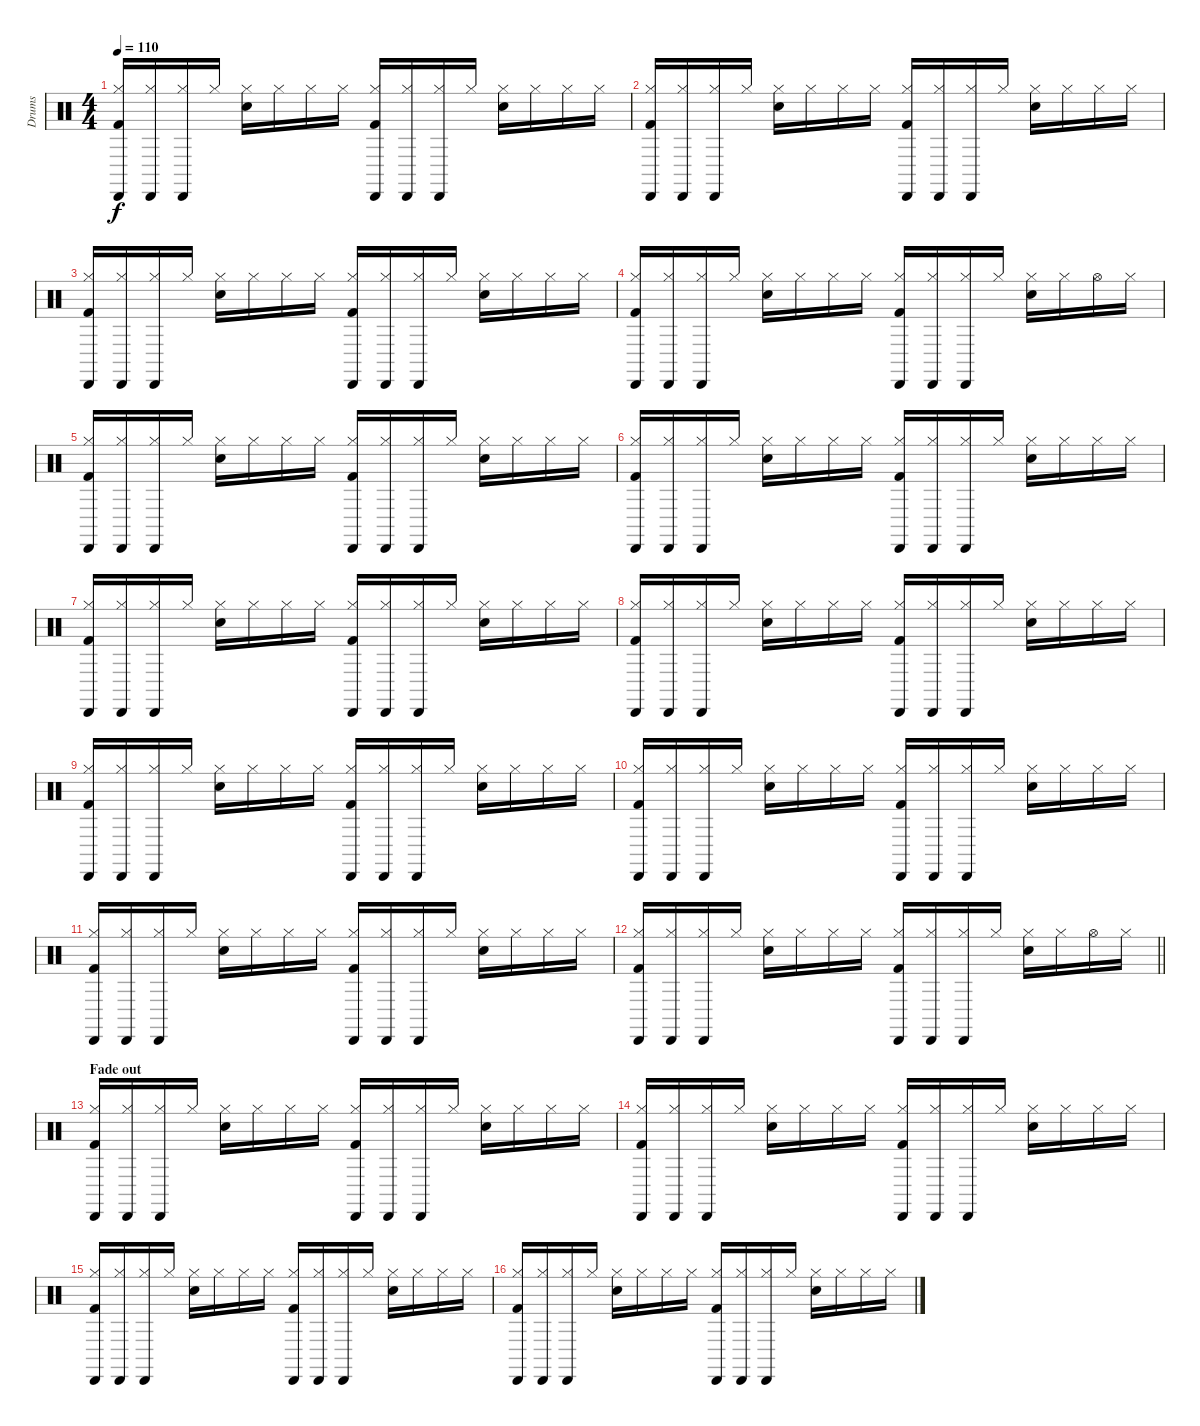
\track ("Drums" "Drums") {instrument percussion}
\staff {score}
\articulation defaults
\ts (4 4)
\tempo 110
\clef neutral
\ks c
("Cabasa (hit)" "Kick (hit) 2" "Hi-Hat (closed)").16{dy f} ("Cabasa (hit)" "Hi-Hat (closed)").16 ("Cabasa (hit)" "Hi-Hat (closed)").16 "Hi-Hat (closed)".16 ("Electric Snare (hit)" "Hi-Hat (closed)").16 "Hi-Hat (closed)".16 "Hi-Hat (closed)".16 "Hi-Hat (closed)".16 ("Cabasa (hit)" "Kick (hit) 2" "Hi-Hat (closed)").16 ("Cabasa (hit)" "Hi-Hat (closed)").16 ("Cabasa (hit)" "Hi-Hat (closed)").16 "Hi-Hat (closed)".16 ("Electric Snare (hit)" "Hi-Hat (closed)").16 "Hi-Hat (closed)".16 "Hi-Hat (closed)".16 "Hi-Hat (closed)".16 |
("Cabasa (hit)" "Kick (hit) 2" "Hi-Hat (closed)").16 ("Cabasa (hit)" "Hi-Hat (closed)").16 ("Cabasa (hit)" "Hi-Hat (closed)").16 "Hi-Hat (closed)".16 ("Electric Snare (hit)" "Hi-Hat (closed)").16 "Hi-Hat (closed)".16 "Hi-Hat (closed)".16 "Hi-Hat (closed)".16 ("Cabasa (hit)" "Kick (hit) 2" "Hi-Hat (closed)").16 ("Cabasa (hit)" "Hi-Hat (closed)").16 ("Cabasa (hit)" "Hi-Hat (closed)").16 "Hi-Hat (closed)".16 ("Electric Snare (hit)" "Hi-Hat (closed)").16 "Hi-Hat (closed)".16 "Hi-Hat (closed)".16 "Hi-Hat (closed)".16 |
("Cabasa (hit)" "Kick (hit) 2" "Hi-Hat (closed)").16 ("Cabasa (hit)" "Hi-Hat (closed)").16 ("Cabasa (hit)" "Hi-Hat (closed)").16 "Hi-Hat (closed)".16 ("Electric Snare (hit)" "Hi-Hat (closed)").16 "Hi-Hat (closed)".16 "Hi-Hat (closed)".16 "Hi-Hat (closed)".16 ("Cabasa (hit)" "Kick (hit) 2" "Hi-Hat (closed)").16 ("Cabasa (hit)" "Hi-Hat (closed)").16 ("Cabasa (hit)" "Hi-Hat (closed)").16 "Hi-Hat (closed)".16 ("Electric Snare (hit)" "Hi-Hat (closed)").16 "Hi-Hat (closed)".16 "Hi-Hat (closed)".16 "Hi-Hat (closed)".16 |
("Cabasa (hit)" "Kick (hit) 2" "Hi-Hat (closed)").16 ("Cabasa (hit)" "Hi-Hat (closed)").16 ("Cabasa (hit)" "Hi-Hat (closed)").16 "Hi-Hat (closed)".16 ("Electric Snare (hit)" "Hi-Hat (closed)").16 "Hi-Hat (closed)".16 "Hi-Hat (closed)".16 "Hi-Hat (closed)".16 ("Cabasa (hit)" "Kick (hit) 2" "Hi-Hat (closed)").16 ("Cabasa (hit)" "Hi-Hat (closed)").16 ("Cabasa (hit)" "Hi-Hat (closed)").16 "Hi-Hat (closed)".16 ("Electric Snare (hit)" "Hi-Hat (closed)").16 "Hi-Hat (closed)".16 "Hi-Hat (open)".16 "Hi-Hat (closed)".16 |
("Cabasa (hit)" "Kick (hit) 2" "Hi-Hat (closed)").16 ("Cabasa (hit)" "Hi-Hat (closed)").16 ("Cabasa (hit)" "Hi-Hat (closed)").16 "Hi-Hat (closed)".16 ("Electric Snare (hit)" "Hi-Hat (closed)").16 "Hi-Hat (closed)".16 "Hi-Hat (closed)".16 "Hi-Hat (closed)".16 ("Cabasa (hit)" "Kick (hit) 2" "Hi-Hat (closed)").16 ("Cabasa (hit)" "Hi-Hat (closed)").16 ("Cabasa (hit)" "Hi-Hat (closed)").16 "Hi-Hat (closed)".16 ("Electric Snare (hit)" "Hi-Hat (closed)").16 "Hi-Hat (closed)".16 "Hi-Hat (closed)".16 "Hi-Hat (closed)".16 |
("Cabasa (hit)" "Kick (hit) 2" "Hi-Hat (closed)").16 ("Cabasa (hit)" "Hi-Hat (closed)").16 ("Cabasa (hit)" "Hi-Hat (closed)").16 "Hi-Hat (closed)".16 ("Electric Snare (hit)" "Hi-Hat (closed)").16 "Hi-Hat (closed)".16 "Hi-Hat (closed)".16 "Hi-Hat (closed)".16 ("Cabasa (hit)" "Kick (hit) 2" "Hi-Hat (closed)").16 ("Cabasa (hit)" "Hi-Hat (closed)").16 ("Cabasa (hit)" "Hi-Hat (closed)").16 "Hi-Hat (closed)".16 ("Electric Snare (hit)" "Hi-Hat (closed)").16 "Hi-Hat (closed)".16 "Hi-Hat (closed)".16 "Hi-Hat (closed)".16 |
("Cabasa (hit)" "Kick (hit) 2" "Hi-Hat (closed)").16 ("Cabasa (hit)" "Hi-Hat (closed)").16 ("Cabasa (hit)" "Hi-Hat (closed)").16 "Hi-Hat (closed)".16 ("Electric Snare (hit)" "Hi-Hat (closed)").16 "Hi-Hat (closed)".16 "Hi-Hat (closed)".16 "Hi-Hat (closed)".16 ("Cabasa (hit)" "Kick (hit) 2" "Hi-Hat (closed)").16 ("Cabasa (hit)" "Hi-Hat (closed)").16 ("Cabasa (hit)" "Hi-Hat (closed)").16 "Hi-Hat (closed)".16 ("Electric Snare (hit)" "Hi-Hat (closed)").16 "Hi-Hat (closed)".16 "Hi-Hat (closed)".16 "Hi-Hat (closed)".16 |
("Cabasa (hit)" "Kick (hit) 2" "Hi-Hat (closed)").16 ("Cabasa (hit)" "Hi-Hat (closed)").16 ("Cabasa (hit)" "Hi-Hat (closed)").16 "Hi-Hat (closed)".16 ("Electric Snare (hit)" "Hi-Hat (closed)").16 "Hi-Hat (closed)".16 "Hi-Hat (closed)".16 "Hi-Hat (closed)".16 ("Cabasa (hit)" "Kick (hit) 2" "Hi-Hat (closed)").16 ("Cabasa (hit)" "Hi-Hat (closed)").16 ("Cabasa (hit)" "Hi-Hat (closed)").16 "Hi-Hat (closed)".16 ("Electric Snare (hit)" "Hi-Hat (closed)").16 "Hi-Hat (closed)".16 "Hi-Hat (closed)".16 "Hi-Hat (closed)".16 |
("Cabasa (hit)" "Kick (hit) 2" "Hi-Hat (closed)").16 ("Cabasa (hit)" "Hi-Hat (closed)").16 ("Cabasa (hit)" "Hi-Hat (closed)").16 "Hi-Hat (closed)".16 ("Electric Snare (hit)" "Hi-Hat (closed)").16 "Hi-Hat (closed)".16 "Hi-Hat (closed)".16 "Hi-Hat (closed)".16 ("Cabasa (hit)" "Kick (hit) 2" "Hi-Hat (closed)").16 ("Cabasa (hit)" "Hi-Hat (closed)").16 ("Cabasa (hit)" "Hi-Hat (closed)").16 "Hi-Hat (closed)".16 ("Electric Snare (hit)" "Hi-Hat (closed)").16 "Hi-Hat (closed)".16 "Hi-Hat (closed)".16 "Hi-Hat (closed)".16 |
("Cabasa (hit)" "Kick (hit) 2" "Hi-Hat (closed)").16 ("Cabasa (hit)" "Hi-Hat (closed)").16 ("Cabasa (hit)" "Hi-Hat (closed)").16 "Hi-Hat (closed)".16 ("Electric Snare (hit)" "Hi-Hat (closed)").16 "Hi-Hat (closed)".16 "Hi-Hat (closed)".16 "Hi-Hat (closed)".16 ("Cabasa (hit)" "Kick (hit) 2" "Hi-Hat (closed)").16 ("Cabasa (hit)" "Hi-Hat (closed)").16 ("Cabasa (hit)" "Hi-Hat (closed)").16 "Hi-Hat (closed)".16 ("Electric Snare (hit)" "Hi-Hat (closed)").16 "Hi-Hat (closed)".16 "Hi-Hat (closed)".16 "Hi-Hat (closed)".16 |
("Cabasa (hit)" "Kick (hit) 2" "Hi-Hat (closed)").16 ("Cabasa (hit)" "Hi-Hat (closed)").16 ("Cabasa (hit)" "Hi-Hat (closed)").16 "Hi-Hat (closed)".16 ("Electric Snare (hit)" "Hi-Hat (closed)").16 "Hi-Hat (closed)".16 "Hi-Hat (closed)".16 "Hi-Hat (closed)".16 ("Cabasa (hit)" "Kick (hit) 2" "Hi-Hat (closed)").16 ("Cabasa (hit)" "Hi-Hat (closed)").16 ("Cabasa (hit)" "Hi-Hat (closed)").16 "Hi-Hat (closed)".16 ("Electric Snare (hit)" "Hi-Hat (closed)").16 "Hi-Hat (closed)".16 "Hi-Hat (closed)".16 "Hi-Hat (closed)".16 |
\barLineRight lightlight
("Cabasa (hit)" "Kick (hit) 2" "Hi-Hat (closed)").16 ("Cabasa (hit)" "Hi-Hat (closed)").16 ("Cabasa (hit)" "Hi-Hat (closed)").16 "Hi-Hat (closed)".16 ("Electric Snare (hit)" "Hi-Hat (closed)").16 "Hi-Hat (closed)".16 "Hi-Hat (closed)".16 "Hi-Hat (closed)".16 ("Cabasa (hit)" "Kick (hit) 2" "Hi-Hat (closed)").16 ("Cabasa (hit)" "Hi-Hat (closed)").16 ("Cabasa (hit)" "Hi-Hat (closed)").16 "Hi-Hat (closed)".16 ("Electric Snare (hit)" "Hi-Hat (closed)").16 "Hi-Hat (closed)".16 "Hi-Hat (open)".16 "Hi-Hat (closed)".16 |
\section ("" "Fade out")
("Cabasa (hit)" "Kick (hit) 2" "Hi-Hat (closed)").16 ("Cabasa (hit)" "Hi-Hat (closed)").16 ("Cabasa (hit)" "Hi-Hat (closed)").16 "Hi-Hat (closed)".16 ("Electric Snare (hit)" "Hi-Hat (closed)").16 "Hi-Hat (closed)".16 "Hi-Hat (closed)".16 "Hi-Hat (closed)".16 ("Cabasa (hit)" "Kick (hit) 2" "Hi-Hat (closed)").16 ("Cabasa (hit)" "Hi-Hat (closed)").16 ("Cabasa (hit)" "Hi-Hat (closed)").16 "Hi-Hat (closed)".16 ("Electric Snare (hit)" "Hi-Hat (closed)").16 "Hi-Hat (closed)".16 "Hi-Hat (closed)".16 "Hi-Hat (closed)".16 |
("Cabasa (hit)" "Kick (hit) 2" "Hi-Hat (closed)").16 ("Cabasa (hit)" "Hi-Hat (closed)").16 ("Cabasa (hit)" "Hi-Hat (closed)").16 "Hi-Hat (closed)".16 ("Electric Snare (hit)" "Hi-Hat (closed)").16 "Hi-Hat (closed)".16 "Hi-Hat (closed)".16 "Hi-Hat (closed)".16 ("Cabasa (hit)" "Kick (hit) 2" "Hi-Hat (closed)").16 ("Cabasa (hit)" "Hi-Hat (closed)").16 ("Cabasa (hit)" "Hi-Hat (closed)").16 "Hi-Hat (closed)".16 ("Electric Snare (hit)" "Hi-Hat (closed)").16 "Hi-Hat (closed)".16 "Hi-Hat (closed)".16 "Hi-Hat (closed)".16 |
("Cabasa (hit)" "Kick (hit) 2" "Hi-Hat (closed)").16 ("Cabasa (hit)" "Hi-Hat (closed)").16 ("Cabasa (hit)" "Hi-Hat (closed)").16 "Hi-Hat (closed)".16 ("Electric Snare (hit)" "Hi-Hat (closed)").16 "Hi-Hat (closed)".16 "Hi-Hat (closed)".16 "Hi-Hat (closed)".16 ("Cabasa (hit)" "Kick (hit) 2" "Hi-Hat (closed)").16 ("Cabasa (hit)" "Hi-Hat (closed)").16 ("Cabasa (hit)" "Hi-Hat (closed)").16 "Hi-Hat (closed)".16 ("Electric Snare (hit)" "Hi-Hat (closed)").16 "Hi-Hat (closed)".16 "Hi-Hat (closed)".16 "Hi-Hat (closed)".16 |
("Cabasa (hit)" "Kick (hit) 2" "Hi-Hat (closed)").16 ("Cabasa (hit)" "Hi-Hat (closed)").16 ("Cabasa (hit)" "Hi-Hat (closed)").16 "Hi-Hat (closed)".16 ("Electric Snare (hit)" "Hi-Hat (closed)").16 "Hi-Hat (closed)".16 "Hi-Hat (closed)".16 "Hi-Hat (closed)".16 ("Cabasa (hit)" "Kick (hit) 2" "Hi-Hat (closed)").16 ("Cabasa (hit)" "Hi-Hat (closed)").16 ("Cabasa (hit)" "Hi-Hat (closed)").16 "Hi-Hat (closed)".16 ("Electric Snare (hit)" "Hi-Hat (closed)").16 "Hi-Hat (closed)".16 "Hi-Hat (closed)".16 "Hi-Hat (closed)".16
